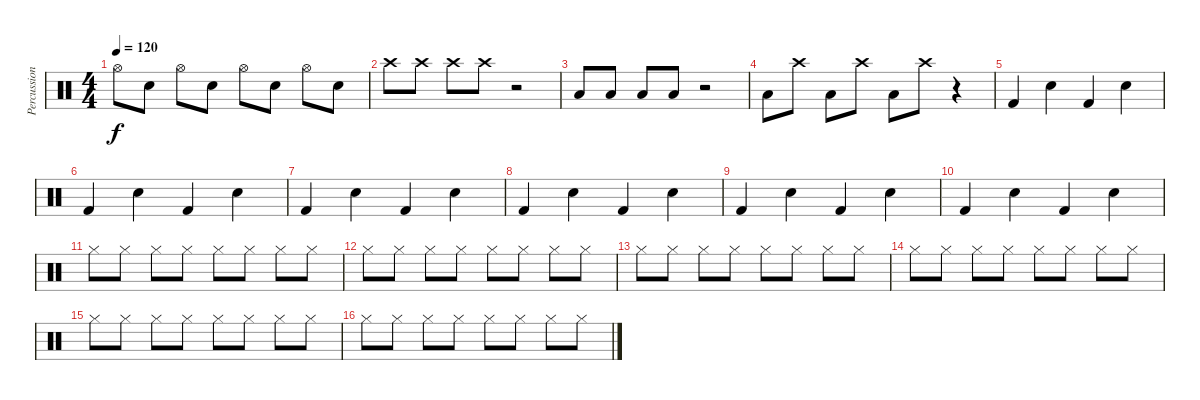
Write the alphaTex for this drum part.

\track ("Percussions" "Percussion") {instrument percussion}
\staff {score}
\articulation defaults
\ts (4 4)
\tempo 120
\clef neutral
\ks c "Hi-Hat (open)".8{dy f} "Electric Snare (hit)".8 "Hi-Hat (open)".8 "Electric Snare (hit)".8 "Hi-Hat (open)".8 "Electric Snare (hit)".8 "Hi-Hat (open)".8 "Electric Snare (hit)".8
|
"Crash high (hit)".8 "Crash high (hit)".8 "Crash high (hit)".8 "Crash high (hit)".8 r.2 |
"Low Floor Tom (hit)".8 "Low Floor Tom (hit)".8 "Low Floor Tom (hit)".8 "Low Floor Tom (hit)".8 r.2 |
"Low Floor Tom (hit)".8 "Crash high (hit)".8 "Low Floor Tom (hit)".8 "Crash high (hit)".8 "Low Floor Tom (hit)".8 "Crash high (hit)".8 r.4 |
"Kick (hit) 2".4 "Electric Snare (hit)".4 "Kick (hit) 2".4 "Electric Snare (hit)".4 |
"Kick (hit) 2".4 "Electric Snare (hit)".4 "Kick (hit) 2".4 "Electric Snare (hit)".4 |
"Kick (hit) 2".4 "Electric Snare (hit)".4 "Kick (hit) 2".4 "Electric Snare (hit)".4 |
"Kick (hit) 2".4 "Electric Snare (hit)".4 "Kick (hit) 2".4 "Electric Snare (hit)".4 |
"Kick (hit) 2".4 "Electric Snare (hit)".4 "Kick (hit) 2".4 "Electric Snare (hit)".4 |
"Kick (hit) 2".4 "Electric Snare (hit)".4 "Kick (hit) 2".4 "Electric Snare (hit)".4 |
"Hi-Hat (closed)".8 "Hi-Hat (closed)".8 "Hi-Hat (closed)".8 "Hi-Hat (closed)".8 "Hi-Hat (closed)".8 "Hi-Hat (closed)".8 "Hi-Hat (closed)".8 "Hi-Hat (closed)".8 |
"Hi-Hat (closed)".8 "Hi-Hat (closed)".8 "Hi-Hat (closed)".8 "Hi-Hat (closed)".8 "Hi-Hat (closed)".8 "Hi-Hat (closed)".8 "Hi-Hat (closed)".8 "Hi-Hat (closed)".8 |
"Hi-Hat (closed)".8 "Hi-Hat (closed)".8 "Hi-Hat (closed)".8 "Hi-Hat (closed)".8 "Hi-Hat (closed)".8 "Hi-Hat (closed)".8 "Hi-Hat (closed)".8 "Hi-Hat (closed)".8 |
"Hi-Hat (closed)".8 "Hi-Hat (closed)".8 "Hi-Hat (closed)".8 "Hi-Hat (closed)".8 "Hi-Hat (closed)".8 "Hi-Hat (closed)".8 "Hi-Hat (closed)".8 "Hi-Hat (closed)".8 |
"Hi-Hat (closed)".8 "Hi-Hat (closed)".8 "Hi-Hat (closed)".8 "Hi-Hat (closed)".8 "Hi-Hat (closed)".8 "Hi-Hat (closed)".8 "Hi-Hat (closed)".8 "Hi-Hat (closed)".8 |
"Hi-Hat (closed)".8 "Hi-Hat (closed)".8 "Hi-Hat (closed)".8 "Hi-Hat (closed)".8 "Hi-Hat (closed)".8 "Hi-Hat (closed)".8 "Hi-Hat (closed)".8 "Hi-Hat (closed)".8
